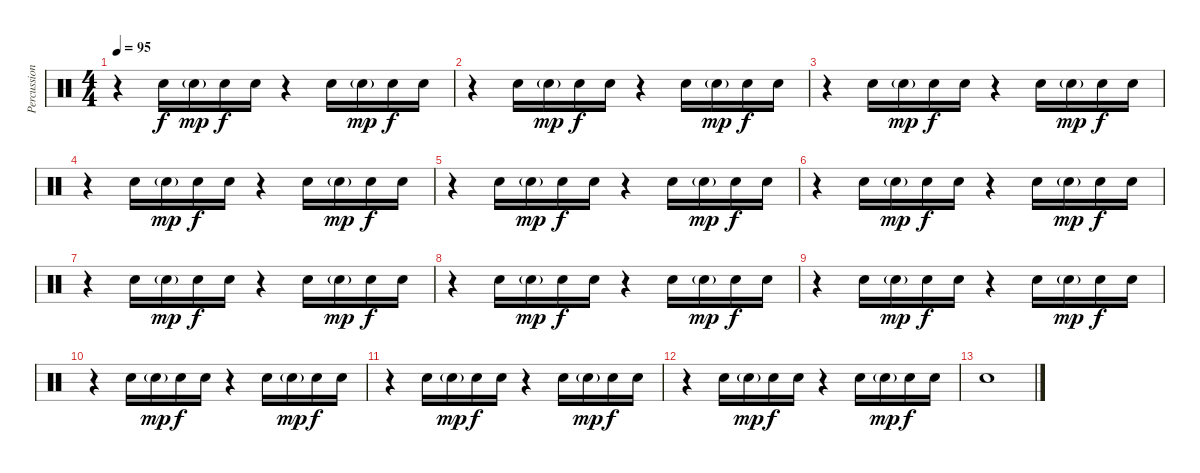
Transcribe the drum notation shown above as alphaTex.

\track ("Percussion" "Percussion") {instrument percussion}
\staff {score}
\articulation defaults
\ts (4 4)
\tempo 95
\clef neutral
\ks c
r.4{dy f} "Electric Snare (hit)".16 "Electric Snare (hit)"{g}.16{dy mp} "Snare (hit) 2".16{dy f} "Snare (hit) 2".16 r.4 "Electric Snare (hit)".16 "Electric Snare (hit)"{g}.16{dy mp} "Snare (hit) 2".16{dy f} "Snare (hit) 2".16 |
r.4 "Electric Snare (hit)".16 "Electric Snare (hit)"{g}.16{dy mp} "Snare (hit) 2".16{dy f} "Snare (hit) 2".16 r.4 "Electric Snare (hit)".16 "Electric Snare (hit)"{g}.16{dy mp} "Snare (hit) 2".16{dy f} "Snare (hit) 2".16 |
r.4 "Electric Snare (hit)".16 "Electric Snare (hit)"{g}.16{dy mp} "Snare (hit) 2".16{dy f} "Snare (hit) 2".16 r.4 "Electric Snare (hit)".16 "Electric Snare (hit)"{g}.16{dy mp} "Snare (hit) 2".16{dy f} "Snare (hit) 2".16 |
r.4 "Electric Snare (hit)".16 "Electric Snare (hit)"{g}.16{dy mp} "Snare (hit) 2".16{dy f} "Snare (hit) 2".16 r.4 "Electric Snare (hit)".16 "Electric Snare (hit)"{g}.16{dy mp} "Snare (hit) 2".16{dy f} "Snare (hit) 2".16 |
r.4 "Electric Snare (hit)".16 "Electric Snare (hit)"{g}.16{dy mp} "Snare (hit) 2".16{dy f} "Snare (hit) 2".16 r.4 "Electric Snare (hit)".16 "Electric Snare (hit)"{g}.16{dy mp} "Snare (hit) 2".16{dy f} "Snare (hit) 2".16 |
r.4 "Electric Snare (hit)".16 "Electric Snare (hit)"{g}.16{dy mp} "Snare (hit) 2".16{dy f} "Snare (hit) 2".16 r.4 "Electric Snare (hit)".16 "Electric Snare (hit)"{g}.16{dy mp} "Snare (hit) 2".16{dy f} "Snare (hit) 2".16 |
r.4 "Electric Snare (hit)".16 "Electric Snare (hit)"{g}.16{dy mp} "Snare (hit) 2".16{dy f} "Snare (hit) 2".16 r.4 "Electric Snare (hit)".16 "Electric Snare (hit)"{g}.16{dy mp} "Snare (hit) 2".16{dy f} "Snare (hit) 2".16 |
r.4 "Electric Snare (hit)".16 "Electric Snare (hit)"{g}.16{dy mp} "Snare (hit) 2".16{dy f} "Snare (hit) 2".16 r.4 "Electric Snare (hit)".16 "Electric Snare (hit)"{g}.16{dy mp} "Snare (hit) 2".16{dy f} "Snare (hit) 2".16 |
r.4 "Electric Snare (hit)".16 "Electric Snare (hit)"{g}.16{dy mp} "Snare (hit) 2".16{dy f} "Snare (hit) 2".16 r.4 "Electric Snare (hit)".16 "Electric Snare (hit)"{g}.16{dy mp} "Snare (hit) 2".16{dy f} "Snare (hit) 2".16 |
r.4 "Electric Snare (hit)".16 "Electric Snare (hit)"{g}.16{dy mp} "Snare (hit) 2".16{dy f} "Snare (hit) 2".16 r.4 "Electric Snare (hit)".16 "Electric Snare (hit)"{g}.16{dy mp} "Snare (hit) 2".16{dy f} "Snare (hit) 2".16 |
r.4 "Electric Snare (hit)".16 "Electric Snare (hit)"{g}.16{dy mp} "Snare (hit) 2".16{dy f} "Snare (hit) 2".16 r.4 "Electric Snare (hit)".16 "Electric Snare (hit)"{g}.16{dy mp} "Snare (hit) 2".16{dy f} "Snare (hit) 2".16 |
r.4 "Electric Snare (hit)".16 "Electric Snare (hit)"{g}.16{dy mp} "Snare (hit) 2".16{dy f} "Snare (hit) 2".16 r.4 "Electric Snare (hit)".16 "Electric Snare (hit)"{g}.16{dy mp} "Snare (hit) 2".16{dy f} "Snare (hit) 2".16 |
"Electric Snare (hit)".1
